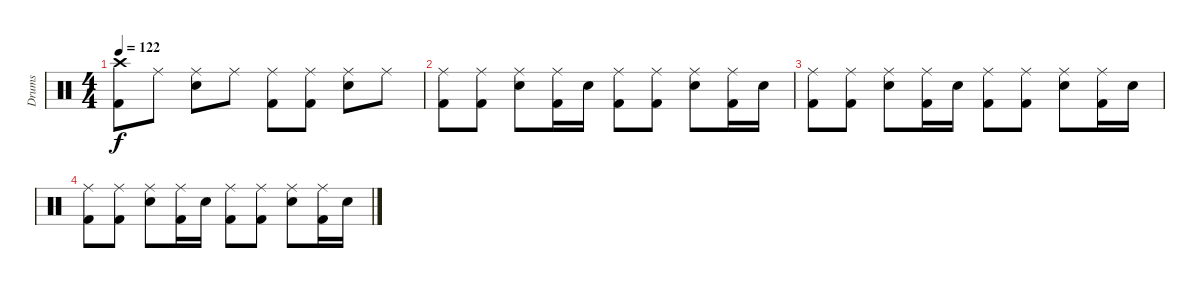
\track ("Drums" "Drums") {instrument percussion}
\staff {score}
\articulation defaults
\ts (4 4)
\tempo 122
\clef neutral
\ks c
("Crash high (hit)" "Kick (hit) 2").8{dy f} "Ride (middle)".8 ("Ride (middle)" "Snare (hit) 2").8 "Ride (middle)".8 ("Ride (middle)" "Kick (hit) 2").8 ("Ride (middle)" "Kick (hit) 2").8 ("Ride (middle)" "Snare (hit) 2").8 "Ride (middle)".8 |
("Ride (middle)" "Kick (hit) 2").8 ("Ride (middle)" "Kick (hit) 2").8 ("Ride (middle)" "Snare (hit) 2").8 ("Ride (middle)" "Kick (hit) 2").16 "Snare (hit) 2".16 ("Ride (middle)" "Kick (hit) 2").8 ("Ride (middle)" "Kick (hit) 2").8 ("Ride (middle)" "Snare (hit) 2").8 ("Ride (middle)" "Kick (hit) 2").16 "Snare (hit) 2".16 |
("Ride (middle)" "Kick (hit) 2").8 ("Ride (middle)" "Kick (hit) 2").8 ("Ride (middle)" "Snare (hit) 2").8 ("Ride (middle)" "Kick (hit) 2").16 "Snare (hit) 2".16 ("Ride (middle)" "Kick (hit) 2").8 ("Ride (middle)" "Kick (hit) 2").8 ("Ride (middle)" "Snare (hit) 2").8 ("Ride (middle)" "Kick (hit) 2").16 "Snare (hit) 2".16 |
("Ride (middle)" "Kick (hit) 2").8 ("Ride (middle)" "Kick (hit) 2").8 ("Ride (middle)" "Snare (hit) 2").8 ("Ride (middle)" "Kick (hit) 2").16 "Snare (hit) 2".16 ("Ride (middle)" "Kick (hit) 2").8 ("Ride (middle)" "Kick (hit) 2").8 ("Ride (middle)" "Snare (hit) 2").8 ("Ride (middle)" "Kick (hit) 2").16 "Snare (hit) 2".16
